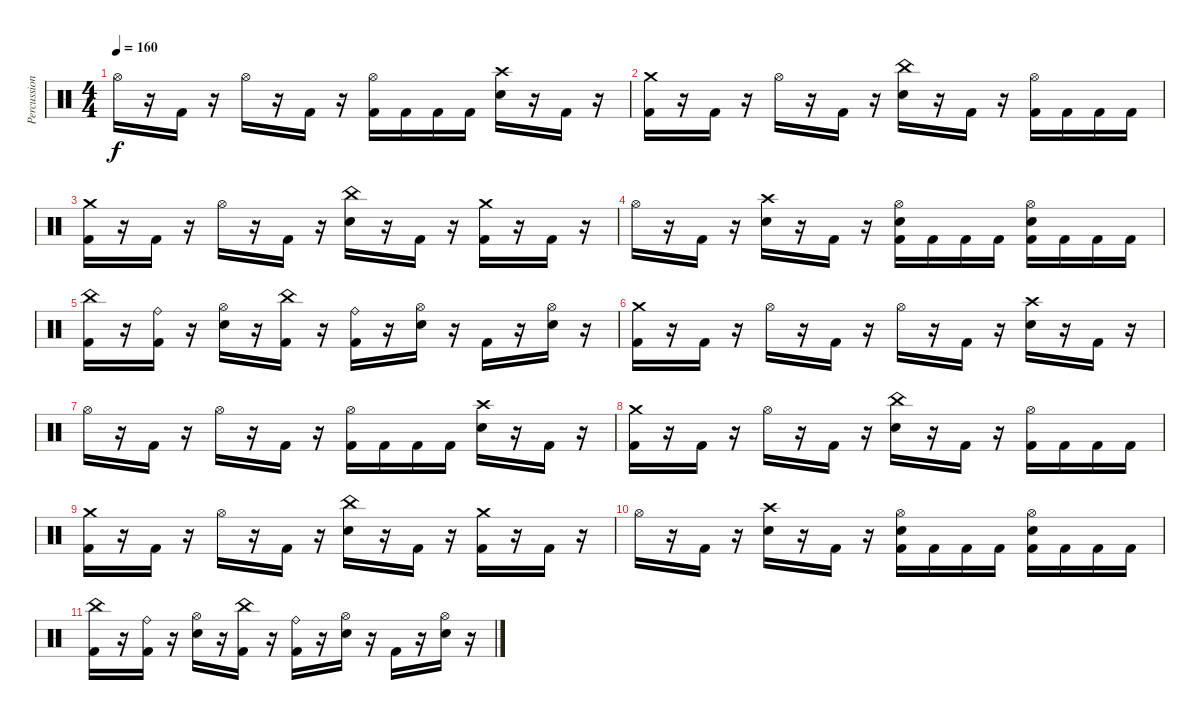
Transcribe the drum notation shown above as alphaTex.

\track ("Percussion" "Percussion") {instrument percussion}
\staff {score}
\articulation defaults
\ts (4 4)
\tempo 160
\clef neutral
\ks c "Hi-Hat (open)".16{dy f}
r.16 "Kick (hit) 2".16 r.16 "Hi-Hat (open)".16 r.16 "Kick (hit) 2".16 r.16 ("Hi-Hat (open)" "Kick (hit) 2").16 "Kick (hit) 2".16 "Kick (hit) 2".16 "Kick (hit) 2".16 ("Crash high (hit)" "Electric Snare (hit)").16 r.16 "Kick (hit) 2".16 r.16 |
("Crash medium (hit)" "Kick (hit) 2").16 r.16 "Kick (hit) 2".16 r.16 "Hi-Hat (open)".16 r.16 "Kick (hit) 2".16 r.16 ("China (hit)" "Electric Snare (hit)").16 r.16 "Kick (hit) 2".16 r.16 ("Hi-Hat (open)" "Kick (hit) 2").16 "Kick (hit) 2".16 "Kick (hit) 2".16 "Kick (hit) 2".16 |
("Crash medium (hit)" "Kick (hit) 2").16 r.16 "Kick (hit) 2".16 r.16 "Hi-Hat (open)".16 r.16 "Kick (hit) 2".16 r.16 ("China (hit)" "Electric Snare (hit)").16 r.16 "Kick (hit) 2".16 r.16 ("Crash medium (hit)" "Kick (hit) 2").16 r.16 "Kick (hit) 2".16 r.16 |
"Hi-Hat (open)".16 r.16 "Kick (hit) 2".16 r.16 ("Crash high (hit)" "Electric Snare (hit)").16 r.16 "Kick (hit) 2".16 r.16 ("Hi-Hat (open)" "Electric Snare (hit)" "Kick (hit) 2").16 "Kick (hit) 2".16 "Kick (hit) 2".16 "Kick (hit) 2".16 ("Hi-Hat (open)" "Electric Snare (hit)" "Kick (hit) 2").16 "Kick (hit) 2".16 "Kick (hit) 2".16 "Kick (hit) 2".16 |
("China (hit)" "Kick (hit) 2").16 r.16 ("Ride (bell)" "Kick (hit) 2").16 r.16 ("Hi-Hat (open)" "Electric Snare (hit)").16 r.16 ("China (hit)" "Kick (hit) 2").16 r.16 ("Ride (bell)" "Kick (hit) 2").16 r.16 ("Hi-Hat (open)" "Electric Snare (hit)").16 r.16 "Kick (hit) 2".16 r.16 ("Hi-Hat (open)" "Electric Snare (hit)").16 r.16 |
("Crash medium (hit)" "Kick (hit) 2").16 r.16 "Kick (hit) 2".16 r.16 "Hi-Hat (open)".16 r.16 "Kick (hit) 2".16 r.16 "Hi-Hat (open)".16 r.16 "Kick (hit) 2".16 r.16 ("Crash high (hit)" "Electric Snare (hit)").16 r.16 "Kick (hit) 2".16 r.16 |
"Hi-Hat (open)".16 r.16 "Kick (hit) 2".16 r.16 "Hi-Hat (open)".16 r.16 "Kick (hit) 2".16 r.16 ("Hi-Hat (open)" "Kick (hit) 2").16 "Kick (hit) 2".16 "Kick (hit) 2".16 "Kick (hit) 2".16 ("Crash high (hit)" "Electric Snare (hit)").16 r.16 "Kick (hit) 2".16 r.16 |
("Crash medium (hit)" "Kick (hit) 2").16 r.16 "Kick (hit) 2".16 r.16 "Hi-Hat (open)".16 r.16 "Kick (hit) 2".16 r.16 ("China (hit)" "Electric Snare (hit)").16 r.16 "Kick (hit) 2".16 r.16 ("Hi-Hat (open)" "Kick (hit) 2").16 "Kick (hit) 2".16 "Kick (hit) 2".16 "Kick (hit) 2".16 |
("Crash medium (hit)" "Kick (hit) 2").16 r.16 "Kick (hit) 2".16 r.16 "Hi-Hat (open)".16 r.16 "Kick (hit) 2".16 r.16 ("China (hit)" "Electric Snare (hit)").16 r.16 "Kick (hit) 2".16 r.16 ("Crash medium (hit)" "Kick (hit) 2").16 r.16 "Kick (hit) 2".16 r.16 |
"Hi-Hat (open)".16 r.16 "Kick (hit) 2".16 r.16 ("Crash high (hit)" "Electric Snare (hit)").16 r.16 "Kick (hit) 2".16 r.16 ("Hi-Hat (open)" "Electric Snare (hit)" "Kick (hit) 2").16 "Kick (hit) 2".16 "Kick (hit) 2".16 "Kick (hit) 2".16 ("Hi-Hat (open)" "Electric Snare (hit)" "Kick (hit) 2").16 "Kick (hit) 2".16 "Kick (hit) 2".16 "Kick (hit) 2".16 |
("China (hit)" "Kick (hit) 2").16 r.16 ("Ride (bell)" "Kick (hit) 2").16 r.16 ("Hi-Hat (open)" "Electric Snare (hit)").16 r.16 ("China (hit)" "Kick (hit) 2").16 r.16 ("Ride (bell)" "Kick (hit) 2").16 r.16 ("Hi-Hat (open)" "Electric Snare (hit)").16 r.16 "Kick (hit) 2".16 r.16 ("Hi-Hat (open)" "Electric Snare (hit)").16 r.16
